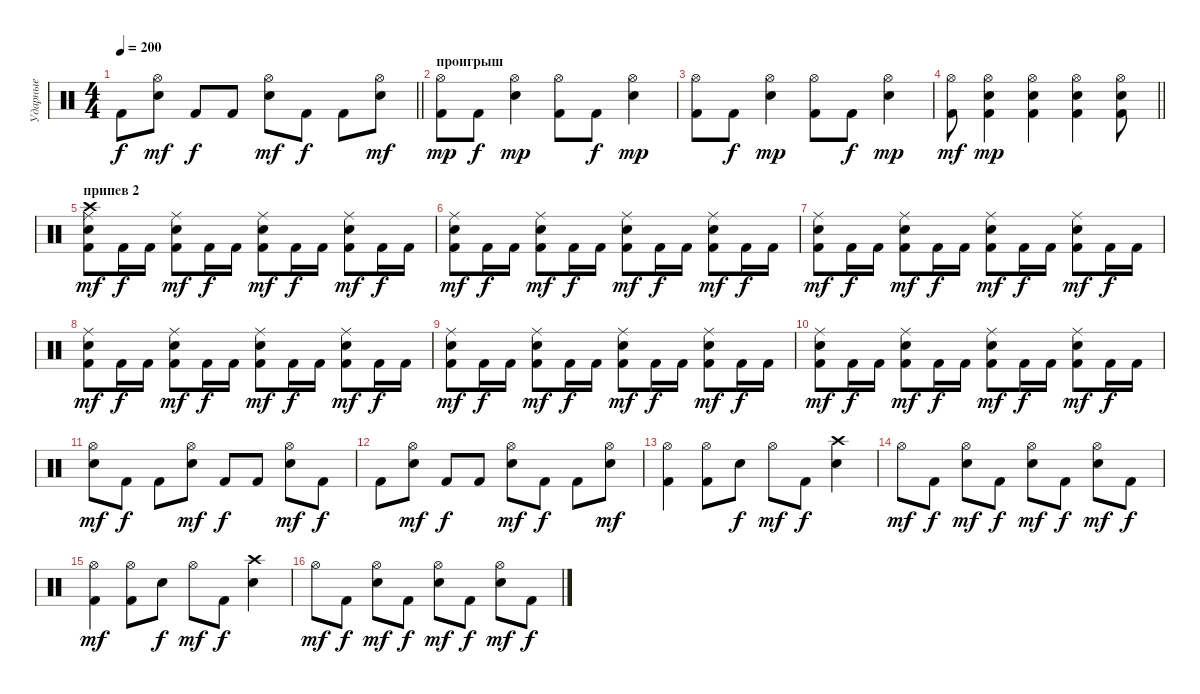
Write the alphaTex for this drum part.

\track ("Ударные" "Ударные") {instrument percussion}
\staff {score}
\articulation defaults
\ts (4 4)
\tempo 200
\clef neutral
\barLineRight lightlight
\ks c "Kick (hit) 2".8{dy f}
("Electric Snare (hit)" "Hi-Hat (open)").8{dy mf} "Kick (hit) 2".8{dy f} "Kick (hit) 2".8 ("Electric Snare (hit)" "Hi-Hat (open)").8{dy mf} "Kick (hit) 2".8{dy f} "Kick (hit) 2".8 ("Electric Snare (hit)" "Hi-Hat (open)").8{dy mf} |
\section ("" "проигрыш")
("Kick (hit) 2" "Hi-Hat (open)").8{dy mp} "Kick (hit) 2".8{dy f} ("Electric Snare (hit)" "Hi-Hat (open)").4{dy mp} ("Kick (hit) 2" "Hi-Hat (open)").8 "Kick (hit) 2".8{dy f} ("Electric Snare (hit)" "Hi-Hat (open)").4{dy mp} |
("Kick (hit) 2" "Hi-Hat (open)").8 "Kick (hit) 2".8{dy f} ("Electric Snare (hit)" "Hi-Hat (open)").4{dy mp} ("Kick (hit) 2" "Hi-Hat (open)").8 "Kick (hit) 2".8{dy f} ("Electric Snare (hit)" "Hi-Hat (open)").4{dy mp} |
\barLineRight lightlight
("Kick (hit) 2" "Hi-Hat (open)").8{dy mf} ("Kick (hit) 2" "Electric Snare (hit)" "Hi-Hat (open)").4{dy mp} ("Kick (hit) 2" "Electric Snare (hit)" "Hi-Hat (open)").4 ("Kick (hit) 2" "Electric Snare (hit)" "Hi-Hat (open)").4 ("Kick (hit) 2" "Electric Snare (hit)" "Hi-Hat (open)").8 |
\section ("" "припев 2")
("Kick (hit) 2" "Electric Snare (hit)" "Ride (middle)" "Crash high (hit)").8{dy mf} "Kick (hit) 2".16{dy f} "Kick (hit) 2".16 ("Kick (hit) 2" "Electric Snare (hit)" "Ride (middle)").8{dy mf} "Kick (hit) 2".16{dy f} "Kick (hit) 2".16 ("Kick (hit) 2" "Electric Snare (hit)" "Ride (middle)").8{dy mf} "Kick (hit) 2".16{dy f} "Kick (hit) 2".16 ("Kick (hit) 2" "Electric Snare (hit)" "Ride (middle)").8{dy mf} "Kick (hit) 2".16{dy f} "Kick (hit) 2".16 |
("Kick (hit) 2" "Electric Snare (hit)" "Ride (middle)").8{dy mf} "Kick (hit) 2".16{dy f} "Kick (hit) 2".16 ("Kick (hit) 2" "Electric Snare (hit)" "Ride (middle)").8{dy mf} "Kick (hit) 2".16{dy f} "Kick (hit) 2".16 ("Kick (hit) 2" "Electric Snare (hit)" "Ride (middle)").8{dy mf} "Kick (hit) 2".16{dy f} "Kick (hit) 2".16 ("Kick (hit) 2" "Electric Snare (hit)" "Ride (middle)").8{dy mf} "Kick (hit) 2".16{dy f} "Kick (hit) 2".16 |
("Kick (hit) 2" "Electric Snare (hit)" "Ride (middle)").8{dy mf} "Kick (hit) 2".16{dy f} "Kick (hit) 2".16 ("Kick (hit) 2" "Electric Snare (hit)" "Ride (middle)").8{dy mf} "Kick (hit) 2".16{dy f} "Kick (hit) 2".16 ("Kick (hit) 2" "Electric Snare (hit)" "Ride (middle)").8{dy mf} "Kick (hit) 2".16{dy f} "Kick (hit) 2".16 ("Kick (hit) 2" "Electric Snare (hit)" "Ride (middle)").8{dy mf} "Kick (hit) 2".16{dy f} "Kick (hit) 2".16 |
("Kick (hit) 2" "Electric Snare (hit)" "Ride (middle)").8{dy mf} "Kick (hit) 2".16{dy f} "Kick (hit) 2".16 ("Kick (hit) 2" "Electric Snare (hit)" "Ride (middle)").8{dy mf} "Kick (hit) 2".16{dy f} "Kick (hit) 2".16 ("Kick (hit) 2" "Electric Snare (hit)" "Ride (middle)").8{dy mf} "Kick (hit) 2".16{dy f} "Kick (hit) 2".16 ("Kick (hit) 2" "Electric Snare (hit)" "Ride (middle)").8{dy mf} "Kick (hit) 2".16{dy f} "Kick (hit) 2".16 |
("Kick (hit) 2" "Electric Snare (hit)" "Ride (middle)").8{dy mf} "Kick (hit) 2".16{dy f} "Kick (hit) 2".16 ("Kick (hit) 2" "Electric Snare (hit)" "Ride (middle)").8{dy mf} "Kick (hit) 2".16{dy f} "Kick (hit) 2".16 ("Kick (hit) 2" "Electric Snare (hit)" "Ride (middle)").8{dy mf} "Kick (hit) 2".16{dy f} "Kick (hit) 2".16 ("Kick (hit) 2" "Electric Snare (hit)" "Ride (middle)").8{dy mf} "Kick (hit) 2".16{dy f} "Kick (hit) 2".16 |
("Kick (hit) 2" "Electric Snare (hit)" "Ride (middle)").8{dy mf} "Kick (hit) 2".16{dy f} "Kick (hit) 2".16 ("Kick (hit) 2" "Electric Snare (hit)" "Ride (middle)").8{dy mf} "Kick (hit) 2".16{dy f} "Kick (hit) 2".16 ("Kick (hit) 2" "Electric Snare (hit)" "Ride (middle)").8{dy mf} "Kick (hit) 2".16{dy f} "Kick (hit) 2".16 ("Kick (hit) 2" "Electric Snare (hit)" "Ride (middle)").8{dy mf} "Kick (hit) 2".16{dy f} "Kick (hit) 2".16 |
("Electric Snare (hit)" "Hi-Hat (open)").8{dy mf} "Kick (hit) 2".8{dy f} "Kick (hit) 2".8 ("Electric Snare (hit)" "Hi-Hat (open)").8{dy mf} "Kick (hit) 2".8{dy f} "Kick (hit) 2".8 ("Electric Snare (hit)" "Hi-Hat (open)").8{dy mf} "Kick (hit) 2".8{dy f} |
"Kick (hit) 2".8 ("Electric Snare (hit)" "Hi-Hat (open)").8{dy mf} "Kick (hit) 2".8{dy f} "Kick (hit) 2".8 ("Electric Snare (hit)" "Hi-Hat (open)").8{dy mf} "Kick (hit) 2".8{dy f} "Kick (hit) 2".8 ("Electric Snare (hit)" "Hi-Hat (open)").8{dy mf} |
("Kick (hit) 2" "Hi-Hat (open)").4 ("Kick (hit) 2" "Hi-Hat (open)").8 "Electric Snare (hit)".8{dy f} "Hi-Hat (open)".8{dy mf} "Kick (hit) 2".8{dy f} ("Electric Snare (hit)" "Crash high (hit)").4 |
"Hi-Hat (open)".8{dy mf} "Kick (hit) 2".8{dy f} ("Electric Snare (hit)" "Hi-Hat (open)").8{dy mf} "Kick (hit) 2".8{dy f} ("Electric Snare (hit)" "Hi-Hat (open)").8{dy mf} "Kick (hit) 2".8{dy f} ("Electric Snare (hit)" "Hi-Hat (open)").8{dy mf} "Kick (hit) 2".8{dy f} |
("Kick (hit) 2" "Hi-Hat (open)").4{dy mf} ("Kick (hit) 2" "Hi-Hat (open)").8 "Electric Snare (hit)".8{dy f} "Hi-Hat (open)".8{dy mf} "Kick (hit) 2".8{dy f} ("Electric Snare (hit)" "Crash high (hit)").4 |
"Hi-Hat (open)".8{dy mf} "Kick (hit) 2".8{dy f} ("Electric Snare (hit)" "Hi-Hat (open)").8{dy mf} "Kick (hit) 2".8{dy f} ("Electric Snare (hit)" "Hi-Hat (open)").8{dy mf} "Kick (hit) 2".8{dy f} ("Electric Snare (hit)" "Hi-Hat (open)").8{dy mf} "Kick (hit) 2".8{dy f}
